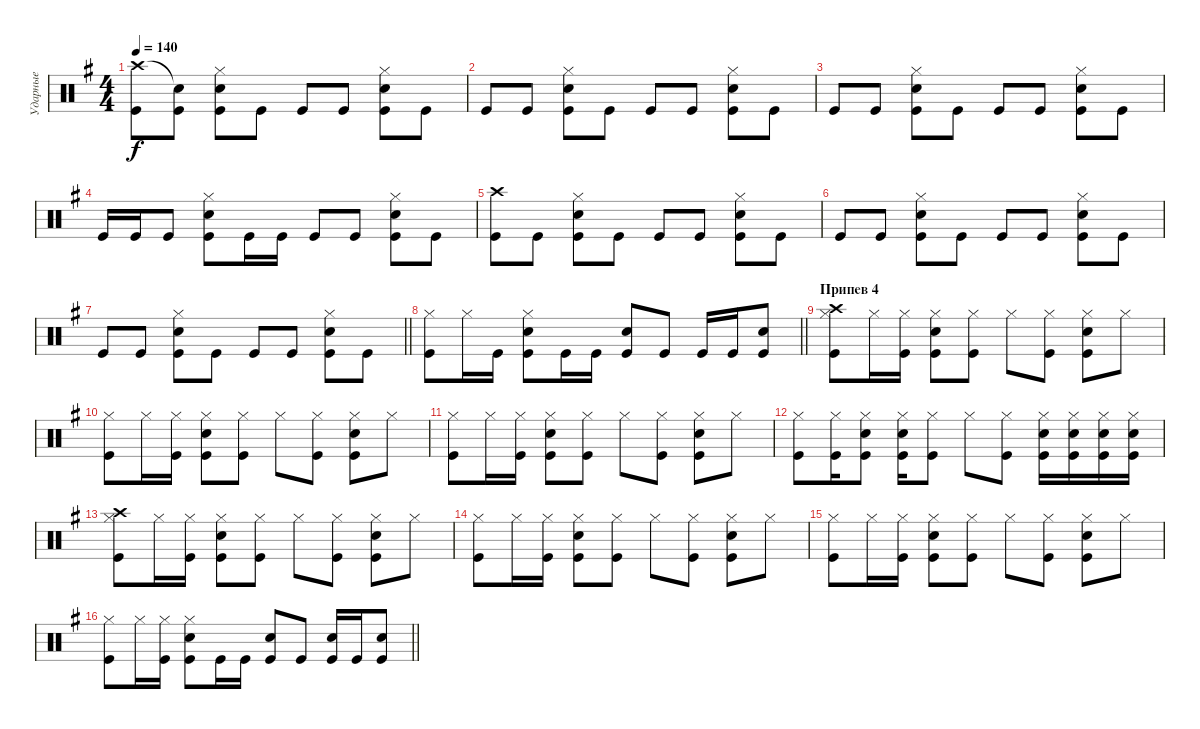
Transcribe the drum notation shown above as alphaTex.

\track ("Ударные" "Ударные") {instrument percussion}
\staff {score}
\articulation defaults
\ts (4 4)
\tempo 140
\clef neutral
\ks g
("Kick (hit)" "Crash high (hit)").8{dy f} ("Kick (hit)" "Snare (hit)"{t}).8 ("Kick (hit)" "Snare (hit) 2" "Hi-Hat (closed)").8 "Kick (hit)".8 "Kick (hit)".8 "Kick (hit)".8 ("Kick (hit)" "Snare (hit) 2" "Hi-Hat (closed)").8 "Kick (hit)".8 |
"Kick (hit)".8 "Kick (hit)".8 ("Kick (hit)" "Snare (hit) 2" "Hi-Hat (closed)").8 "Kick (hit)".8 "Kick (hit)".8 "Kick (hit)".8 ("Kick (hit)" "Snare (hit) 2" "Hi-Hat (closed)").8 "Kick (hit)".8 |
"Kick (hit)".8 "Kick (hit)".8 ("Kick (hit)" "Snare (hit) 2" "Hi-Hat (closed)").8 "Kick (hit)".8 "Kick (hit)".8 "Kick (hit)".8 ("Kick (hit)" "Snare (hit) 2" "Hi-Hat (closed)").8 "Kick (hit)".8 |
"Kick (hit)".16 "Kick (hit)".16 "Kick (hit)".8 ("Kick (hit)" "Snare (hit) 2" "Hi-Hat (closed)").8 "Kick (hit)".16 "Kick (hit)".16 "Kick (hit)".8 "Kick (hit)".8 ("Kick (hit)" "Snare (hit) 2" "Hi-Hat (closed)").8 "Kick (hit)".8 |
("Kick (hit)" "Crash high (hit)").8 "Kick (hit)".8 ("Kick (hit)" "Snare (hit) 2" "Hi-Hat (closed)").8 "Kick (hit)".8 "Kick (hit)".8 "Kick (hit)".8 ("Kick (hit)" "Snare (hit) 2" "Hi-Hat (closed)").8 "Kick (hit)".8 |
"Kick (hit)".8 "Kick (hit)".8 ("Kick (hit)" "Snare (hit) 2" "Hi-Hat (closed)").8 "Kick (hit)".8 "Kick (hit)".8 "Kick (hit)".8 ("Kick (hit)" "Snare (hit) 2" "Hi-Hat (closed)").8 "Kick (hit)".8 |
\barLineRight lightlight "Kick (hit)".8 "Kick (hit)".8
("Kick (hit)" "Snare (hit) 2" "Hi-Hat (closed)").8 "Kick (hit)".8 "Kick (hit)".8 "Kick (hit)".8 ("Kick (hit)" "Snare (hit) 2" "Hi-Hat (closed)").8 "Kick (hit)".8 |
\barLineRight lightlight
("Kick (hit)" "Hi-Hat (closed)").8 "Hi-Hat (closed)".16 "Kick (hit)".16 ("Kick (hit)" "Snare (hit) 2" "Hi-Hat (closed)").8 "Kick (hit)".16 "Kick (hit)".16 ("Kick (hit)" "Snare (hit) 2").8 "Kick (hit)".8 "Kick (hit)".16 "Kick (hit)".16 ("Kick (hit)" "Snare (hit) 2").8 |
\section ("" "Припев 4")
("Kick (hit)" "Crash high (hit)" "Hi-Hat (closed)").8 "Hi-Hat (closed)".16 ("Kick (hit)" "Hi-Hat (closed)").16 ("Kick (hit)" "Snare (hit) 2" "Hi-Hat (closed)").8 ("Kick (hit)" "Hi-Hat (closed)").8 "Hi-Hat (closed)".8 ("Kick (hit)" "Hi-Hat (closed)").8 ("Kick (hit)" "Snare (hit) 2" "Hi-Hat (closed)").8 "Hi-Hat (closed)".8 |
("Kick (hit)" "Hi-Hat (closed)").8 "Hi-Hat (closed)".16 ("Kick (hit)" "Hi-Hat (closed)").16 ("Kick (hit)" "Snare (hit) 2" "Hi-Hat (closed)").8 ("Kick (hit)" "Hi-Hat (closed)").8 "Hi-Hat (closed)".8 ("Kick (hit)" "Hi-Hat (closed)").8 ("Kick (hit)" "Snare (hit) 2" "Hi-Hat (closed)").8 "Hi-Hat (closed)".8 |
("Kick (hit)" "Hi-Hat (closed)").8 "Hi-Hat (closed)".16 ("Kick (hit)" "Hi-Hat (closed)").16 ("Kick (hit)" "Snare (hit) 2" "Hi-Hat (closed)").8 ("Kick (hit)" "Hi-Hat (closed)").8 "Hi-Hat (closed)".8 ("Kick (hit)" "Hi-Hat (closed)").8 ("Kick (hit)" "Snare (hit) 2" "Hi-Hat (closed)").8 "Hi-Hat (closed)".8 |
("Kick (hit)" "Hi-Hat (closed)").8 ("Kick (hit)" "Hi-Hat (closed)").16 ("Kick (hit)" "Snare (hit) 2" "Hi-Hat (closed)").8 ("Kick (hit)" "Snare (hit) 2" "Hi-Hat (closed)").16 ("Kick (hit)" "Hi-Hat (closed)").8 "Hi-Hat (closed)".8 ("Kick (hit)" "Hi-Hat (closed)").8 ("Kick (hit)" "Snare (hit) 2" "Hi-Hat (closed)").16 ("Kick (hit)" "Snare (hit) 2" "Hi-Hat (closed)").16 ("Kick (hit)" "Snare (hit) 2" "Hi-Hat (closed)").16 ("Kick (hit)" "Snare (hit) 2" "Hi-Hat (closed)").16 |
("Kick (hit)" "Crash high (hit)" "Hi-Hat (closed)").8 "Hi-Hat (closed)".16 ("Kick (hit)" "Hi-Hat (closed)").16 ("Kick (hit)" "Snare (hit) 2" "Hi-Hat (closed)").8 ("Kick (hit)" "Hi-Hat (closed)").8 "Hi-Hat (closed)".8 ("Kick (hit)" "Hi-Hat (closed)").8 ("Kick (hit)" "Snare (hit) 2" "Hi-Hat (closed)").8 "Hi-Hat (closed)".8 |
("Kick (hit)" "Hi-Hat (closed)").8 "Hi-Hat (closed)".16 ("Kick (hit)" "Hi-Hat (closed)").16 ("Kick (hit)" "Snare (hit) 2" "Hi-Hat (closed)").8 ("Kick (hit)" "Hi-Hat (closed)").8 "Hi-Hat (closed)".8 ("Kick (hit)" "Hi-Hat (closed)").8 ("Kick (hit)" "Snare (hit) 2" "Hi-Hat (closed)").8 "Hi-Hat (closed)".8 |
("Kick (hit)" "Hi-Hat (closed)").8 "Hi-Hat (closed)".16 ("Kick (hit)" "Hi-Hat (closed)").16 ("Kick (hit)" "Snare (hit) 2" "Hi-Hat (closed)").8 ("Kick (hit)" "Hi-Hat (closed)").8 "Hi-Hat (closed)".8 ("Kick (hit)" "Hi-Hat (closed)").8 ("Kick (hit)" "Snare (hit) 2" "Hi-Hat (closed)").8 "Hi-Hat (closed)".8 |
\barLineRight lightlight
("Kick (hit)" "Hi-Hat (closed)").8 "Hi-Hat (closed)".16 ("Kick (hit)" "Hi-Hat (closed)").16 ("Kick (hit)" "Snare (hit) 2" "Hi-Hat (closed)").8 "Kick (hit)".16 "Kick (hit)".16 ("Kick (hit)" "Snare (hit) 2").8 "Kick (hit)".8 ("Kick (hit)" "Snare (hit) 2").16 "Kick (hit)".16 ("Kick (hit)" "Snare (hit) 2").8
